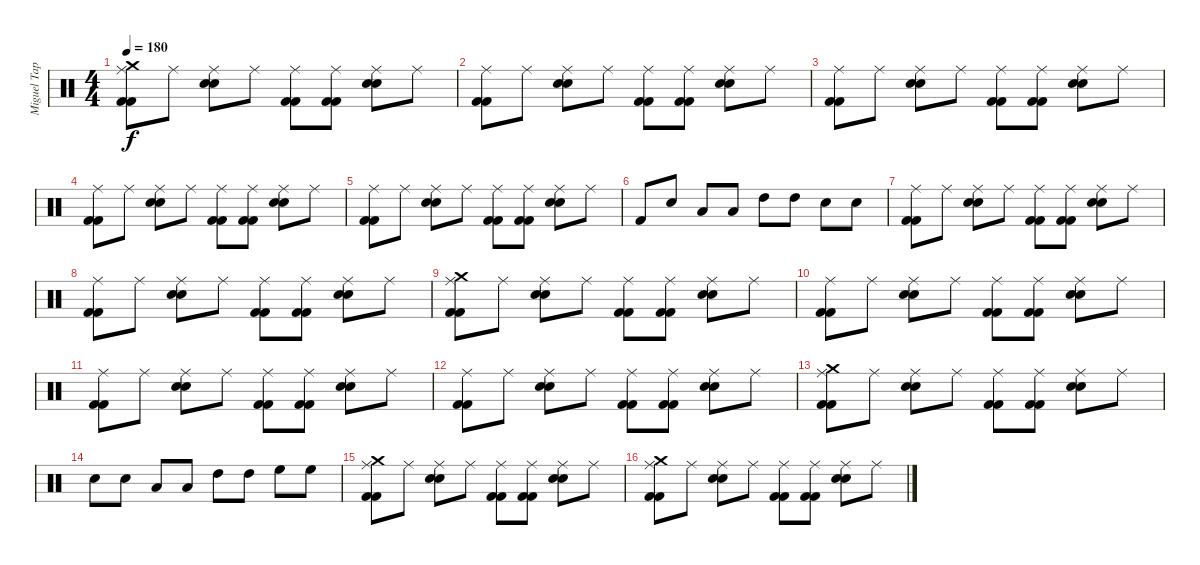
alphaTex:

\track ("Miguel Tapia" "Miguel Tap") {instrument percussion}
\staff {score}
\articulation defaults
\ts (4 4)
\tempo 180
\clef neutral
\ks c
("Ride (middle)" "Kick (hit) 2" "Kick (hit) 2" "Crash medium (hit)").8{dy f} "Ride (middle)".8 ("Ride (middle)" "Electric Snare (hit)" "Electric Snare (hit)").8 "Ride (middle)".8 ("Ride (middle)" "Kick (hit) 2" "Kick (hit) 2").8 ("Ride (middle)" "Kick (hit) 2" "Kick (hit) 2").8 ("Ride (middle)" "Electric Snare (hit)" "Electric Snare (hit)").8 "Ride (middle)".8 |
("Ride (middle)" "Kick (hit) 2" "Kick (hit) 2").8 "Ride (middle)".8 ("Ride (middle)" "Electric Snare (hit)" "Electric Snare (hit)").8 "Ride (middle)".8 ("Ride (middle)" "Kick (hit) 2" "Kick (hit) 2").8 ("Ride (middle)" "Kick (hit) 2" "Kick (hit) 2").8 ("Ride (middle)" "Electric Snare (hit)" "Electric Snare (hit)").8 "Ride (middle)".8 |
("Ride (middle)" "Kick (hit) 2" "Kick (hit) 2").8 "Ride (middle)".8 ("Ride (middle)" "Electric Snare (hit)" "Electric Snare (hit)").8 "Ride (middle)".8 ("Ride (middle)" "Kick (hit) 2" "Kick (hit) 2").8 ("Ride (middle)" "Kick (hit) 2" "Kick (hit) 2").8 ("Ride (middle)" "Electric Snare (hit)" "Electric Snare (hit)").8 "Ride (middle)".8 |
("Ride (middle)" "Kick (hit) 2" "Kick (hit) 2").8 "Ride (middle)".8 ("Ride (middle)" "Electric Snare (hit)" "Electric Snare (hit)").8 "Ride (middle)".8 ("Ride (middle)" "Kick (hit) 2" "Kick (hit) 2").8 ("Ride (middle)" "Kick (hit) 2" "Kick (hit) 2").8 ("Ride (middle)" "Electric Snare (hit)" "Electric Snare (hit)").8 "Ride (middle)".8 |
("Ride (middle)" "Kick (hit) 2" "Kick (hit) 2").8 "Ride (middle)".8 ("Ride (middle)" "Electric Snare (hit)" "Electric Snare (hit)").8 "Ride (middle)".8 ("Ride (middle)" "Kick (hit) 2" "Kick (hit) 2").8 ("Ride (middle)" "Kick (hit) 2" "Kick (hit) 2").8 ("Ride (middle)" "Electric Snare (hit)" "Electric Snare (hit)").8 "Ride (middle)".8 |
"Kick (hit) 2".8 "Snare (hit) 2".8 "Low Tom (hit)".8 "Low Tom (hit)".8 "High Tom (hit)".8 "High Tom (hit)".8 "Electric Snare (hit)".8 "Electric Snare (hit)".8 |
("Ride (middle)" "Kick (hit) 2" "Kick (hit) 2").8 "Ride (middle)".8 ("Ride (middle)" "Electric Snare (hit)" "Electric Snare (hit)").8 "Ride (middle)".8 ("Ride (middle)" "Kick (hit) 2" "Kick (hit) 2").8 ("Ride (middle)" "Kick (hit) 2" "Kick (hit) 2").8 ("Ride (middle)" "Electric Snare (hit)" "Electric Snare (hit)").8 "Ride (middle)".8 |
("Ride (middle)" "Kick (hit) 2" "Kick (hit) 2").8 "Ride (middle)".8 ("Ride (middle)" "Electric Snare (hit)" "Electric Snare (hit)").8 "Ride (middle)".8 ("Ride (middle)" "Kick (hit) 2" "Kick (hit) 2").8 ("Ride (middle)" "Kick (hit) 2" "Kick (hit) 2").8 ("Ride (middle)" "Electric Snare (hit)" "Electric Snare (hit)").8 "Ride (middle)".8 |
("Ride (middle)" "Kick (hit) 2" "Kick (hit) 2" "Crash medium (hit)").8 "Ride (middle)".8 ("Ride (middle)" "Electric Snare (hit)" "Electric Snare (hit)").8 "Ride (middle)".8 ("Ride (middle)" "Kick (hit) 2" "Kick (hit) 2").8 ("Ride (middle)" "Kick (hit) 2" "Kick (hit) 2").8 ("Ride (middle)" "Electric Snare (hit)" "Electric Snare (hit)").8 "Ride (middle)".8 |
("Ride (middle)" "Kick (hit) 2" "Kick (hit) 2").8 "Ride (middle)".8 ("Ride (middle)" "Electric Snare (hit)" "Electric Snare (hit)").8 "Ride (middle)".8 ("Ride (middle)" "Kick (hit) 2" "Kick (hit) 2").8 ("Ride (middle)" "Kick (hit) 2" "Kick (hit) 2").8 ("Ride (middle)" "Electric Snare (hit)" "Electric Snare (hit)").8 "Ride (middle)".8 |
("Ride (middle)" "Kick (hit) 2" "Kick (hit) 2").8 "Ride (middle)".8 ("Ride (middle)" "Electric Snare (hit)" "Electric Snare (hit)").8 "Ride (middle)".8 ("Ride (middle)" "Kick (hit) 2" "Kick (hit) 2").8 ("Ride (middle)" "Kick (hit) 2" "Kick (hit) 2").8 ("Ride (middle)" "Electric Snare (hit)" "Electric Snare (hit)").8 "Ride (middle)".8 |
("Ride (middle)" "Kick (hit) 2" "Kick (hit) 2").8 "Ride (middle)".8 ("Ride (middle)" "Electric Snare (hit)" "Electric Snare (hit)").8 "Ride (middle)".8 ("Ride (middle)" "Kick (hit) 2" "Kick (hit) 2").8 ("Ride (middle)" "Kick (hit) 2" "Kick (hit) 2").8 ("Ride (middle)" "Electric Snare (hit)" "Electric Snare (hit)").8 "Ride (middle)".8 |
("Ride (middle)" "Kick (hit) 2" "Kick (hit) 2" "Crash medium (hit)").8 "Ride (middle)".8 ("Ride (middle)" "Electric Snare (hit)" "Electric Snare (hit)").8 "Ride (middle)".8 ("Ride (middle)" "Kick (hit) 2" "Kick (hit) 2").8 ("Ride (middle)" "Kick (hit) 2" "Kick (hit) 2").8 ("Ride (middle)" "Electric Snare (hit)" "Electric Snare (hit)").8 "Ride (middle)".8 |
"Snare (hit) 2".8 "Snare (hit) 2".8 "Low Tom (hit)".8 "Low Tom (hit)".8 "High Tom (hit)".8 "High Tom (hit)".8 "High Floor Tom (hit)".8 "High Floor Tom (hit)".8 |
("Ride (middle)" "Kick (hit) 2" "Kick (hit) 2" "Crash medium (hit)").8 "Ride (middle)".8 ("Ride (middle)" "Electric Snare (hit)" "Electric Snare (hit)").8 "Ride (middle)".8 ("Ride (middle)" "Kick (hit) 2" "Kick (hit) 2").8 ("Ride (middle)" "Kick (hit) 2" "Kick (hit) 2").8 ("Ride (middle)" "Electric Snare (hit)" "Electric Snare (hit)").8 "Ride (middle)".8 |
("Ride (middle)" "Kick (hit) 2" "Kick (hit) 2" "Crash medium (hit)").8 "Ride (middle)".8 ("Ride (middle)" "Electric Snare (hit)" "Electric Snare (hit)").8 "Ride (middle)".8 ("Ride (middle)" "Kick (hit) 2" "Kick (hit) 2").8 ("Ride (middle)" "Kick (hit) 2" "Kick (hit) 2").8 ("Ride (middle)" "Electric Snare (hit)" "Electric Snare (hit)").8 "Ride (middle)".8
